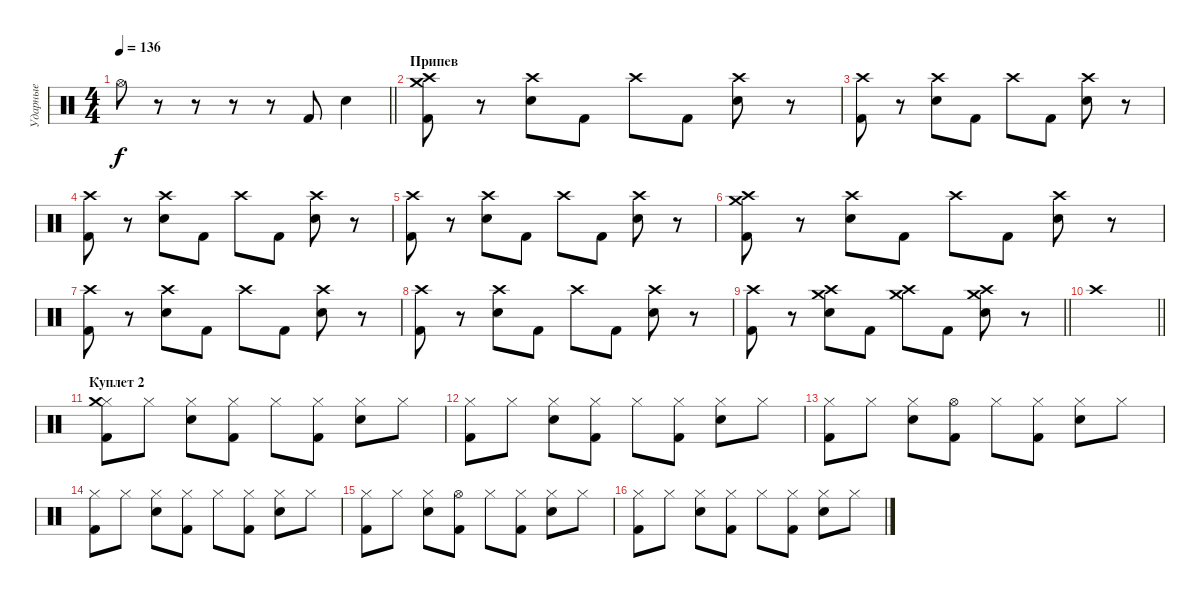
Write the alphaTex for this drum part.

\track ("Ударные" "Ударные") {instrument percussion}
\staff {score}
\articulation defaults
\ts (4 4)
\tempo 136
\clef neutral
\barLineRight lightlight
\ks c "Hi-Hat (open)".8{dy f}
r.8 r.8 r.8 r.8 "Kick (hit) 2".8 "Electric Snare (hit)".4 |
\section ("" "Припев")
("Crash high (hit)" "Crash medium (hit)" "Kick (hit) 2").8 r.8 ("Crash high (hit)" "Electric Snare (hit)").8 "Kick (hit) 2".8 "Crash high (hit)".8 "Kick (hit) 2".8 ("Crash high (hit)" "Electric Snare (hit)").8 r.8 |
("Crash high (hit)" "Kick (hit) 2").8 r.8 ("Crash high (hit)" "Electric Snare (hit)").8 "Kick (hit) 2".8 "Crash high (hit)".8 "Kick (hit) 2".8 ("Crash high (hit)" "Electric Snare (hit)").8 r.8 |
("Crash high (hit)" "Kick (hit) 2").8 r.8 ("Crash high (hit)" "Electric Snare (hit)").8 "Kick (hit) 2".8 "Crash high (hit)".8 "Kick (hit) 2".8 ("Crash high (hit)" "Electric Snare (hit)").8 r.8 |
("Crash high (hit)" "Kick (hit) 2").8 r.8 ("Crash high (hit)" "Electric Snare (hit)").8 "Kick (hit) 2".8 "Crash high (hit)".8 "Kick (hit) 2".8 ("Crash high (hit)" "Electric Snare (hit)").8 r.8 |
("Crash high (hit)" "Crash medium (hit)" "Kick (hit) 2").8 r.8 ("Crash high (hit)" "Electric Snare (hit)").8 "Kick (hit) 2".8 "Crash high (hit)".8 "Kick (hit) 2".8 ("Crash high (hit)" "Electric Snare (hit)").8 r.8 |
("Crash high (hit)" "Kick (hit) 2").8 r.8 ("Crash high (hit)" "Electric Snare (hit)").8 "Kick (hit) 2".8 "Crash high (hit)".8 "Kick (hit) 2".8 ("Crash high (hit)" "Electric Snare (hit)").8 r.8 |
("Crash high (hit)" "Kick (hit) 2").8 r.8 ("Crash high (hit)" "Electric Snare (hit)").8 "Kick (hit) 2".8 "Crash high (hit)".8 "Kick (hit) 2".8 ("Crash high (hit)" "Electric Snare (hit)").8 r.8 |
\barLineRight lightlight
("Crash high (hit)" "Kick (hit) 2").8 r.8 ("Crash high (hit)" "Crash medium (hit)" "Electric Snare (hit)").8 "Kick (hit) 2".8 ("Crash high (hit)" "Crash medium (hit)").8 "Kick (hit) 2".8 ("Crash high (hit)" "Crash medium (hit)" "Electric Snare (hit)").8 r.8 |
\barLineRight lightlight "Crash high (hit)".1
|
\section ("" "Куплет 2")
("Hi-Hat (closed)" "Crash medium (hit)" "Kick (hit) 2").8 "Hi-Hat (closed)".8 ("Hi-Hat (closed)" "Electric Snare (hit)").8 ("Hi-Hat (closed)" "Kick (hit) 2").8 "Hi-Hat (closed)".8 ("Hi-Hat (closed)" "Kick (hit) 2").8 ("Hi-Hat (closed)" "Electric Snare (hit)").8 "Hi-Hat (closed)".8 |
("Hi-Hat (closed)" "Kick (hit) 2").8 "Hi-Hat (closed)".8 ("Hi-Hat (closed)" "Electric Snare (hit)").8 ("Hi-Hat (closed)" "Kick (hit) 2").8 "Hi-Hat (closed)".8 ("Hi-Hat (closed)" "Kick (hit) 2").8 ("Hi-Hat (closed)" "Electric Snare (hit)").8 "Hi-Hat (closed)".8 |
("Hi-Hat (closed)" "Kick (hit) 2").8 "Hi-Hat (closed)".8 ("Hi-Hat (closed)" "Electric Snare (hit)").8 ("Hi-Hat (open)" "Kick (hit) 2").8 "Hi-Hat (closed)".8 ("Hi-Hat (closed)" "Kick (hit) 2").8 ("Hi-Hat (closed)" "Electric Snare (hit)").8 "Hi-Hat (closed)".8 |
("Hi-Hat (closed)" "Kick (hit) 2").8 "Hi-Hat (closed)".8 ("Hi-Hat (closed)" "Electric Snare (hit)").8 ("Hi-Hat (closed)" "Kick (hit) 2").8 "Hi-Hat (closed)".8 ("Hi-Hat (closed)" "Kick (hit) 2").8 ("Hi-Hat (closed)" "Electric Snare (hit)").8 "Hi-Hat (closed)".8 |
("Hi-Hat (closed)" "Kick (hit) 2").8 "Hi-Hat (closed)".8 ("Hi-Hat (closed)" "Electric Snare (hit)").8 ("Hi-Hat (open)" "Kick (hit) 2").8 "Hi-Hat (closed)".8 ("Hi-Hat (closed)" "Kick (hit) 2").8 ("Hi-Hat (closed)" "Electric Snare (hit)").8 "Hi-Hat (closed)".8 |
("Hi-Hat (closed)" "Kick (hit) 2").8 "Hi-Hat (closed)".8 ("Hi-Hat (closed)" "Electric Snare (hit)").8 ("Hi-Hat (closed)" "Kick (hit) 2").8 "Hi-Hat (closed)".8 ("Hi-Hat (closed)" "Kick (hit) 2").8 ("Hi-Hat (closed)" "Electric Snare (hit)").8 "Hi-Hat (closed)".8
